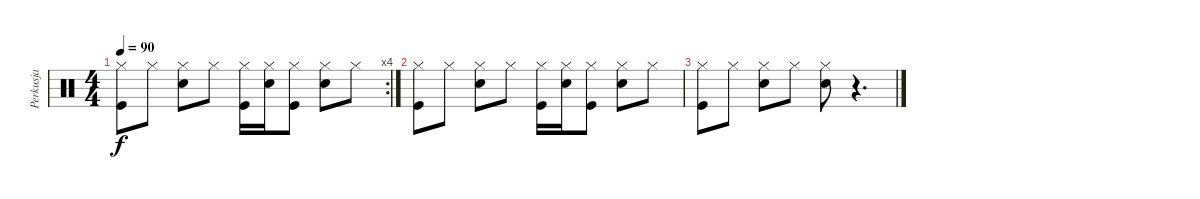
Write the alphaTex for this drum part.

\track ("Perkusja" "Perkusja") {instrument percussion}
\staff {score}
\articulation defaults
\rc 4
\ts (4 4)
\tempo 90
\clef neutral
\ks c
("Hi-Hat (closed)" "Kick (hit)").8{dy f} "Hi-Hat (closed)".8 ("Hi-Hat (closed)" "Electric Snare (hit)").8 "Hi-Hat (closed)".8 ("Hi-Hat (closed)" "Kick (hit)").16 ("Hi-Hat (closed)" "Electric Snare (hit)").16 ("Hi-Hat (closed)" "Kick (hit)").8 ("Hi-Hat (closed)" "Electric Snare (hit)").8 "Hi-Hat (closed)".8 |
("Hi-Hat (closed)" "Kick (hit)").8 "Hi-Hat (closed)".8 ("Hi-Hat (closed)" "Electric Snare (hit)").8 "Hi-Hat (closed)".8 ("Hi-Hat (closed)" "Kick (hit)").16 ("Hi-Hat (closed)" "Electric Snare (hit)").16 ("Hi-Hat (closed)" "Kick (hit)").8 ("Hi-Hat (closed)" "Electric Snare (hit)").8 "Hi-Hat (closed)".8 |
("Hi-Hat (closed)" "Kick (hit)").8 "Hi-Hat (closed)".8 ("Hi-Hat (closed)" "Electric Snare (hit)").8 "Hi-Hat (closed)".8 ("Hi-Hat (closed)" "Electric Snare (hit)").8 r.4{d}
